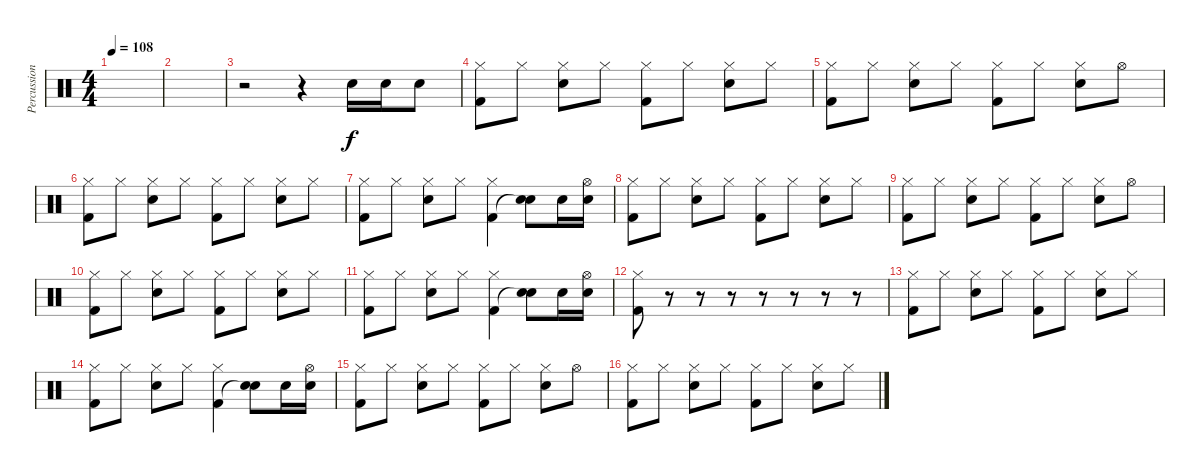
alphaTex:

\track ("Percussion" "Percussion") {instrument percussion}
\staff {score}
\articulation defaults
\ts (4 4)
\tempo 108
\clef neutral
\ks c
|
|
r.2 r.4 "Snare (hit) 2".16 "Snare (hit) 2".16 "Snare (hit) 2".8 |
("Hi-Hat (closed)" "Kick (hit) 2").8 "Hi-Hat (closed)".8 ("Hi-Hat (closed)" "Snare (hit) 2").8 "Hi-Hat (closed)".8 ("Hi-Hat (closed)" "Kick (hit) 2").8 "Hi-Hat (closed)".8 ("Hi-Hat (closed)" "Snare (hit) 2").8 "Hi-Hat (closed)".8 |
("Hi-Hat (closed)" "Kick (hit) 2").8 "Hi-Hat (closed)".8 ("Hi-Hat (closed)" "Snare (hit) 2").8 "Hi-Hat (closed)".8 ("Hi-Hat (closed)" "Kick (hit) 2").8 "Hi-Hat (closed)".8 ("Hi-Hat (closed)" "Snare (hit) 2").8 "Hi-Hat (open)".8 |
("Hi-Hat (closed)" "Kick (hit) 2").8 "Hi-Hat (closed)".8 ("Hi-Hat (closed)" "Snare (hit) 2").8 "Hi-Hat (closed)".8 ("Hi-Hat (closed)" "Kick (hit) 2").8 "Hi-Hat (closed)".8 ("Hi-Hat (closed)" "Snare (hit) 2").8 "Hi-Hat (closed)".8 |
("Hi-Hat (closed)" "Kick (hit) 2").8 "Hi-Hat (closed)".8 ("Hi-Hat (closed)" "Snare (hit) 2").8 "Hi-Hat (closed)".8 ("Hi-Hat (closed)" "Kick (hit) 2").4 ("Snare (hit) 2" "Snare (hit)"{t}).8 "Snare (hit) 2".16 ("Hi-Hat (open)" "Snare (hit) 2").16 |
("Hi-Hat (closed)" "Kick (hit) 2").8 "Hi-Hat (closed)".8 ("Hi-Hat (closed)" "Snare (hit) 2").8 "Hi-Hat (closed)".8 ("Hi-Hat (closed)" "Kick (hit) 2").8 "Hi-Hat (closed)".8 ("Hi-Hat (closed)" "Snare (hit) 2").8 "Hi-Hat (closed)".8 |
("Hi-Hat (closed)" "Kick (hit) 2").8 "Hi-Hat (closed)".8 ("Hi-Hat (closed)" "Snare (hit) 2").8 "Hi-Hat (closed)".8 ("Hi-Hat (closed)" "Kick (hit) 2").8 "Hi-Hat (closed)".8 ("Hi-Hat (closed)" "Snare (hit) 2").8 "Hi-Hat (open)".8 |
("Hi-Hat (closed)" "Kick (hit) 2").8 "Hi-Hat (closed)".8 ("Hi-Hat (closed)" "Snare (hit) 2").8 "Hi-Hat (closed)".8 ("Hi-Hat (closed)" "Kick (hit) 2").8 "Hi-Hat (closed)".8 ("Hi-Hat (closed)" "Snare (hit) 2").8 "Hi-Hat (closed)".8 |
("Hi-Hat (closed)" "Kick (hit) 2").8 "Hi-Hat (closed)".8 ("Hi-Hat (closed)" "Snare (hit) 2").8 "Hi-Hat (closed)".8 ("Hi-Hat (closed)" "Kick (hit) 2").4 ("Snare (hit) 2" "Snare (hit)"{t}).8 "Snare (hit) 2".16 ("Hi-Hat (open)" "Snare (hit) 2").16 |
("Hi-Hat (closed)" "Kick (hit) 2").8 r.8 r.8 r.8 r.8 r.8 r.8 r.8 |
("Hi-Hat (closed)" "Kick (hit) 2").8 "Hi-Hat (closed)".8 ("Hi-Hat (closed)" "Snare (hit) 2").8 "Hi-Hat (closed)".8 ("Hi-Hat (closed)" "Kick (hit) 2").8 "Hi-Hat (closed)".8 ("Hi-Hat (closed)" "Snare (hit) 2").8 "Hi-Hat (closed)".8 |
("Hi-Hat (closed)" "Kick (hit) 2").8 "Hi-Hat (closed)".8 ("Hi-Hat (closed)" "Snare (hit) 2").8 "Hi-Hat (closed)".8 ("Hi-Hat (closed)" "Kick (hit) 2").4 ("Snare (hit) 2" "Snare (hit)"{t}).8 "Snare (hit) 2".16 ("Hi-Hat (open)" "Snare (hit) 2").16 |
("Hi-Hat (closed)" "Kick (hit) 2").8 "Hi-Hat (closed)".8 ("Hi-Hat (closed)" "Snare (hit) 2").8 "Hi-Hat (closed)".8 ("Hi-Hat (closed)" "Kick (hit) 2").8 "Hi-Hat (closed)".8 ("Hi-Hat (closed)" "Snare (hit) 2").8 "Hi-Hat (open)".8 |
("Hi-Hat (closed)" "Kick (hit) 2").8 "Hi-Hat (closed)".8 ("Hi-Hat (closed)" "Snare (hit) 2").8 "Hi-Hat (closed)".8 ("Hi-Hat (closed)" "Kick (hit) 2").8 "Hi-Hat (closed)".8 ("Hi-Hat (closed)" "Snare (hit) 2").8 "Hi-Hat (closed)".8
